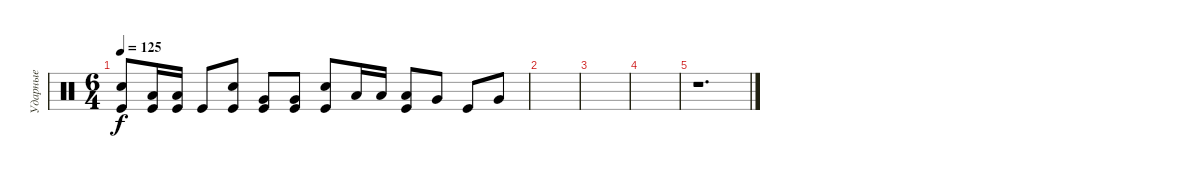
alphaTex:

\track ("Ударные" "Ударные") {instrument percussion}
\staff {score}
\articulation defaults
\ts (6 4)
\tempo 125
\clef neutral
\ks c
("Electric Snare (hit)" "Kick (hit)").8{dy f} ("Low Tom (hit)" "Kick (hit)").16 ("Low Tom (hit)" "Kick (hit)").16 "Kick (hit)".8 ("Electric Snare (hit)" "Kick (hit)").8 ("Very Low Tom (hit)" "Kick (hit)").8 ("Very Low Tom (hit)" "Kick (hit)").8 ("Electric Snare (hit)" "Kick (hit)").8 "Low Tom (hit)".16 "Low Tom (hit)".16 ("Low Tom (hit)" "Kick (hit)").8 "Very Low Tom (hit)".8 "Kick (hit)".8 "Very Low Tom (hit)".8 |
|
|
|
r.1{d}
